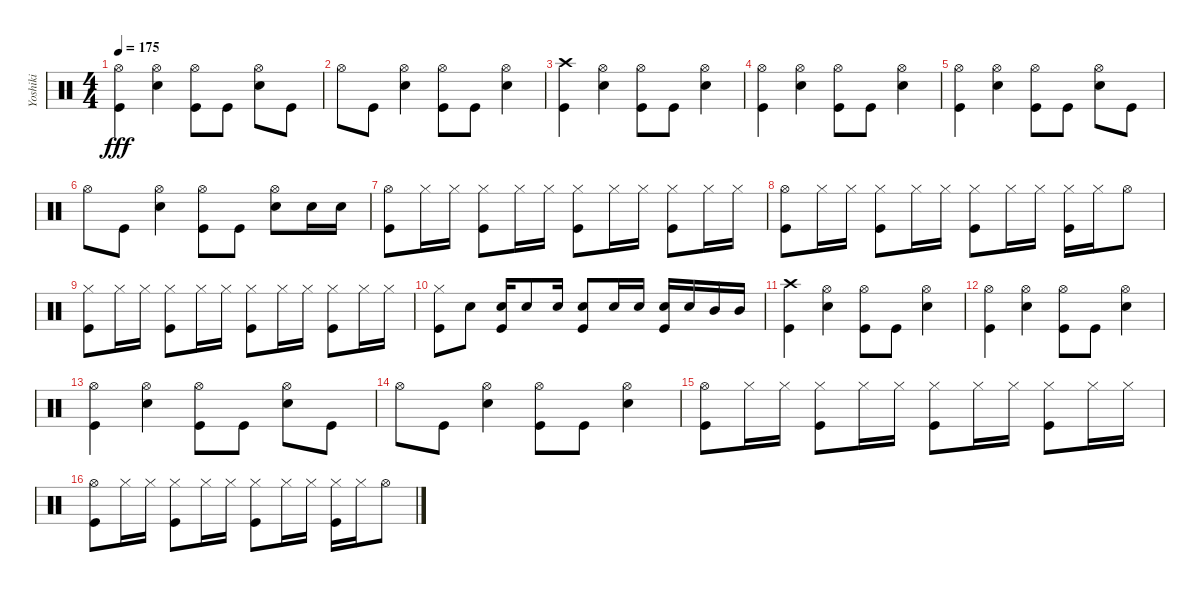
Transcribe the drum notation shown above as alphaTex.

\track ("Yoshiki" "Yoshiki") {instrument percussion}
\staff {score}
\articulation defaults
\ts (4 4)
\tempo 175
\clef neutral
\ks c
("Hi-Hat (open)" "Kick (hit)").4{dy fff} ("Hi-Hat (open)" "Snare (hit) 2").4 ("Hi-Hat (open)" "Kick (hit)").8 "Kick (hit)".8 ("Hi-Hat (open)" "Snare (hit) 2").8 "Kick (hit)".8 |
"Hi-Hat (open)".8 "Kick (hit)".8 ("Hi-Hat (open)" "Snare (hit) 2").4 ("Hi-Hat (open)" "Kick (hit)").8 "Kick (hit)".8 ("Hi-Hat (open)" "Snare (hit) 2").4 |
("Crash high (hit)" "Kick (hit)").4 ("Hi-Hat (open)" "Snare (hit) 2").4 ("Hi-Hat (open)" "Kick (hit)").8 "Kick (hit)".8 ("Hi-Hat (open)" "Snare (hit) 2").4 |
("Hi-Hat (open)" "Kick (hit)").4 ("Hi-Hat (open)" "Snare (hit) 2").4 ("Hi-Hat (open)" "Kick (hit)").8 "Kick (hit)".8 ("Hi-Hat (open)" "Snare (hit) 2").4 |
("Hi-Hat (open)" "Kick (hit)").4 ("Hi-Hat (open)" "Snare (hit) 2").4 ("Hi-Hat (open)" "Kick (hit)").8 "Kick (hit)".8 ("Hi-Hat (open)" "Snare (hit) 2").8 "Kick (hit)".8 |
"Hi-Hat (open)".8 "Kick (hit)".8 ("Hi-Hat (open)" "Snare (hit) 2").4 ("Hi-Hat (open)" "Kick (hit)").8 "Kick (hit)".8 ("Hi-Hat (open)" "Snare (hit) 2").8 "Snare (hit) 2".16 "Snare (hit) 2".16 |
("Hi-Hat (open)" "Kick (hit)").8 "Hi-Hat (closed)".16 "Hi-Hat (closed)".16 ("Hi-Hat (closed)" "Kick (hit)").8 "Hi-Hat (closed)".16 "Hi-Hat (closed)".16 ("Hi-Hat (closed)" "Kick (hit)").8 "Hi-Hat (closed)".16 "Hi-Hat (closed)".16 ("Hi-Hat (closed)" "Kick (hit)").8 "Hi-Hat (closed)".16 "Hi-Hat (closed)".16 |
("Hi-Hat (open)" "Kick (hit)").8 "Hi-Hat (closed)".16 "Hi-Hat (closed)".16 ("Hi-Hat (closed)" "Kick (hit)").8 "Hi-Hat (closed)".16 "Hi-Hat (closed)".16 ("Hi-Hat (closed)" "Kick (hit)").8 "Hi-Hat (closed)".16 "Hi-Hat (closed)".16 ("Hi-Hat (closed)" "Kick (hit)").16 "Hi-Hat (closed)".16 "Hi-Hat (open)".8 |
("Hi-Hat (closed)" "Kick (hit)").8 "Hi-Hat (closed)".16 "Hi-Hat (closed)".16 ("Hi-Hat (closed)" "Kick (hit)").8 "Hi-Hat (closed)".16 "Hi-Hat (closed)".16 ("Hi-Hat (closed)" "Kick (hit)").8 "Hi-Hat (closed)".16 "Hi-Hat (closed)".16 ("Hi-Hat (closed)" "Kick (hit)").8 "Hi-Hat (closed)".16 "Hi-Hat (closed)".16 |
("Hi-Hat (closed)" "Kick (hit)").8 "Snare (hit) 2".8 ("Snare (hit) 2" "Kick (hit)").16 "Snare (hit) 2".8 "Snare (hit) 2".16 ("Snare (hit) 2" "Kick (hit)").8 "Snare (hit) 2".16 "Snare (hit) 2".16 ("Snare (hit) 2" "Kick (hit)").16 "Snare (hit) 2".16 "Mid Tom (hit)".16 "Mid Tom (hit)".16 |
("Crash high (hit)" "Kick (hit)").4 ("Hi-Hat (open)" "Snare (hit) 2").4 ("Hi-Hat (open)" "Kick (hit)").8 "Kick (hit)".8 ("Hi-Hat (open)" "Snare (hit) 2").4 |
("Hi-Hat (open)" "Kick (hit)").4 ("Hi-Hat (open)" "Snare (hit) 2").4 ("Hi-Hat (open)" "Kick (hit)").8 "Kick (hit)".8 ("Hi-Hat (open)" "Snare (hit) 2").4 |
("Hi-Hat (open)" "Kick (hit)").4 ("Hi-Hat (open)" "Snare (hit) 2").4 ("Hi-Hat (open)" "Kick (hit)").8 "Kick (hit)".8 ("Hi-Hat (open)" "Snare (hit) 2").8 "Kick (hit)".8 |
"Hi-Hat (open)".8 "Kick (hit)".8 ("Hi-Hat (open)" "Snare (hit) 2").4 ("Hi-Hat (open)" "Kick (hit)").8 "Kick (hit)".8 ("Hi-Hat (open)" "Snare (hit) 2").4 |
("Hi-Hat (open)" "Kick (hit)").8 "Hi-Hat (closed)".16 "Hi-Hat (closed)".16 ("Hi-Hat (closed)" "Kick (hit)").8 "Hi-Hat (closed)".16 "Hi-Hat (closed)".16 ("Hi-Hat (closed)" "Kick (hit)").8 "Hi-Hat (closed)".16 "Hi-Hat (closed)".16 ("Hi-Hat (closed)" "Kick (hit)").8 "Hi-Hat (closed)".16 "Hi-Hat (closed)".16 |
("Hi-Hat (open)" "Kick (hit)").8 "Hi-Hat (closed)".16 "Hi-Hat (closed)".16 ("Hi-Hat (closed)" "Kick (hit)").8 "Hi-Hat (closed)".16 "Hi-Hat (closed)".16 ("Hi-Hat (closed)" "Kick (hit)").8 "Hi-Hat (closed)".16 "Hi-Hat (closed)".16 ("Hi-Hat (closed)" "Kick (hit)").16 "Hi-Hat (closed)".16 "Hi-Hat (open)".8
